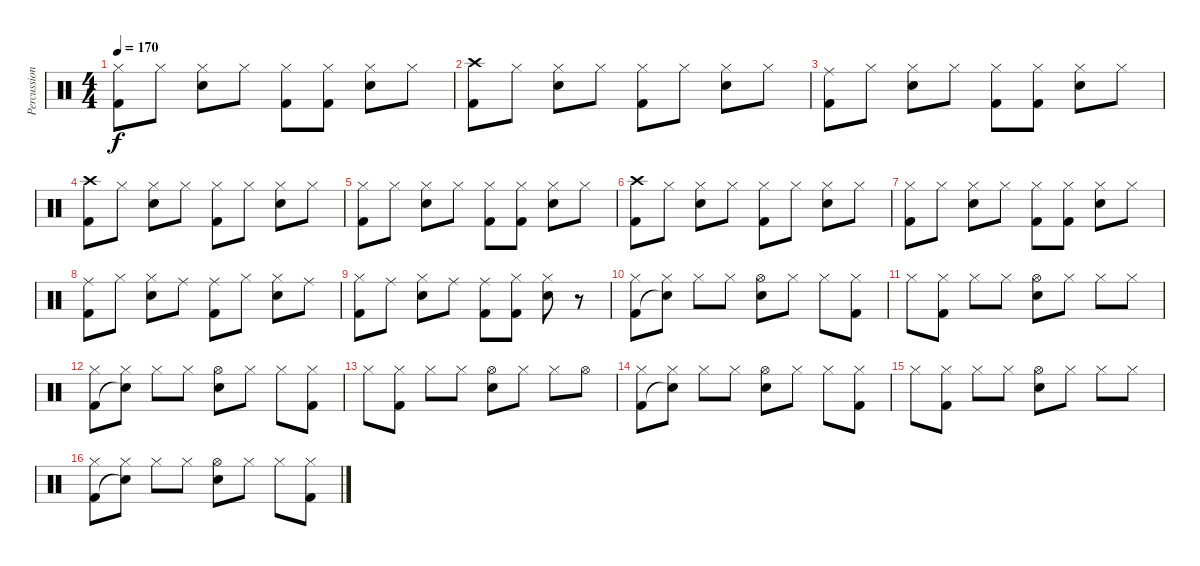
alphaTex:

\track ("Percussion" "Percussion") {instrument percussion}
\staff {score}
\articulation defaults
\ts (4 4)
\tempo 170
\clef neutral
\ks c
("Hi-Hat (closed)" "Kick (hit) 2").8{dy f} "Hi-Hat (closed)".8 ("Hi-Hat (closed)" "Snare (hit) 2").8 "Hi-Hat (closed)".8 ("Hi-Hat (closed)" "Kick (hit) 2").8 ("Hi-Hat (closed)" "Kick (hit) 2").8 ("Hi-Hat (closed)" "Snare (hit) 2").8 "Hi-Hat (closed)".8 |
("Crash high (hit)" "Kick (hit) 2").8 "Hi-Hat (closed)".8 ("Hi-Hat (closed)" "Snare (hit) 2").8 "Hi-Hat (closed)".8 ("Hi-Hat (closed)" "Kick (hit) 2").8 "Hi-Hat (closed)".8 ("Hi-Hat (closed)" "Snare (hit) 2").8 "Hi-Hat (closed)".8 |
("Ride (middle)" "Kick (hit) 2").8 "Hi-Hat (closed)".8 ("Hi-Hat (closed)" "Snare (hit) 2").8 "Hi-Hat (closed)".8 ("Hi-Hat (closed)" "Kick (hit) 2").8 ("Hi-Hat (closed)" "Kick (hit) 2").8 ("Hi-Hat (closed)" "Snare (hit) 2").8 "Hi-Hat (closed)".8 |
("Crash high (hit)" "Kick (hit) 2").8 "Hi-Hat (closed)".8 ("Hi-Hat (closed)" "Snare (hit) 2").8 "Hi-Hat (closed)".8 ("Hi-Hat (closed)" "Kick (hit) 2").8 "Hi-Hat (closed)".8 ("Hi-Hat (closed)" "Snare (hit) 2").8 "Hi-Hat (closed)".8 |
("Hi-Hat (closed)" "Kick (hit) 2").8 "Hi-Hat (closed)".8 ("Hi-Hat (closed)" "Snare (hit) 2").8 "Hi-Hat (closed)".8 ("Hi-Hat (closed)" "Kick (hit) 2").8 ("Hi-Hat (closed)" "Kick (hit) 2").8 ("Hi-Hat (closed)" "Snare (hit) 2").8 "Hi-Hat (closed)".8 |
("Crash high (hit)" "Kick (hit) 2").8 "Hi-Hat (closed)".8 ("Hi-Hat (closed)" "Snare (hit) 2").8 "Hi-Hat (closed)".8 ("Hi-Hat (closed)" "Kick (hit) 2").8 "Hi-Hat (closed)".8 ("Hi-Hat (closed)" "Snare (hit) 2").8 "Hi-Hat (closed)".8 |
("Hi-Hat (closed)" "Kick (hit) 2").8 "Hi-Hat (closed)".8 ("Hi-Hat (closed)" "Snare (hit) 2").8 "Hi-Hat (closed)".8 ("Hi-Hat (closed)" "Kick (hit) 2").8 ("Hi-Hat (closed)" "Kick (hit) 2").8 ("Hi-Hat (closed)" "Snare (hit) 2").8 "Hi-Hat (closed)".8 |
("Ride (middle)" "Kick (hit) 2").8 "Hi-Hat (closed)".8 ("Hi-Hat (closed)" "Snare (hit) 2").8 "Ride (middle)".8 ("Ride (middle)" "Kick (hit) 2").8 "Hi-Hat (closed)".8 ("Hi-Hat (closed)" "Snare (hit) 2").8 "Ride (middle)".8 |
("Hi-Hat (closed)" "Kick (hit) 2").8 "Ride (middle)".8 ("Hi-Hat (closed)" "Snare (hit) 2").8 "Ride (middle)".8 ("Ride (middle)" "Kick (hit) 2").8 ("Hi-Hat (closed)" "Kick (hit) 2").8 ("Hi-Hat (closed)" "Snare (hit) 2").8 r.8 |
("Hi-Hat (closed)" "Kick (hit) 2").8 ("Hi-Hat (closed)" "Snare (hit)"{t}).8 "Hi-Hat (closed)".8 "Hi-Hat (closed)".8 ("Hi-Hat (open)" "Snare (hit) 2").8 "Hi-Hat (closed)".8 "Hi-Hat (closed)".8 ("Hi-Hat (closed)" "Kick (hit) 2").8 |
"Hi-Hat (closed)".8 ("Hi-Hat (closed)" "Kick (hit) 2").8 "Hi-Hat (closed)".8 "Hi-Hat (closed)".8 ("Hi-Hat (open)" "Snare (hit) 2").8 "Hi-Hat (closed)".8 "Hi-Hat (closed)".8 "Hi-Hat (closed)".8 |
("Hi-Hat (closed)" "Kick (hit) 2").8 ("Hi-Hat (closed)" "Snare (hit)"{t}).8 "Hi-Hat (closed)".8 "Hi-Hat (closed)".8 ("Hi-Hat (open)" "Snare (hit) 2").8 "Hi-Hat (closed)".8 "Hi-Hat (closed)".8 ("Hi-Hat (closed)" "Kick (hit) 2").8 |
"Hi-Hat (closed)".8 ("Hi-Hat (closed)" "Kick (hit) 2").8 "Hi-Hat (closed)".8 "Hi-Hat (closed)".8 ("Hi-Hat (open)" "Snare (hit) 2").8 "Hi-Hat (closed)".8 "Hi-Hat (closed)".8 "Hi-Hat (open)".8 |
("Hi-Hat (closed)" "Kick (hit) 2").8 ("Hi-Hat (closed)" "Snare (hit)"{t}).8 "Hi-Hat (closed)".8 "Hi-Hat (closed)".8 ("Hi-Hat (open)" "Snare (hit) 2").8 "Hi-Hat (closed)".8 "Hi-Hat (closed)".8 ("Hi-Hat (closed)" "Kick (hit) 2").8 |
"Hi-Hat (closed)".8 ("Hi-Hat (closed)" "Kick (hit) 2").8 "Hi-Hat (closed)".8 "Hi-Hat (closed)".8 ("Hi-Hat (open)" "Snare (hit) 2").8 "Hi-Hat (closed)".8 "Hi-Hat (closed)".8 "Hi-Hat (closed)".8 |
("Hi-Hat (closed)" "Kick (hit) 2").8 ("Hi-Hat (closed)" "Snare (hit)"{t}).8 "Hi-Hat (closed)".8 "Hi-Hat (closed)".8 ("Hi-Hat (open)" "Snare (hit) 2").8 "Hi-Hat (closed)".8 "Hi-Hat (closed)".8 ("Hi-Hat (closed)" "Kick (hit) 2").8
